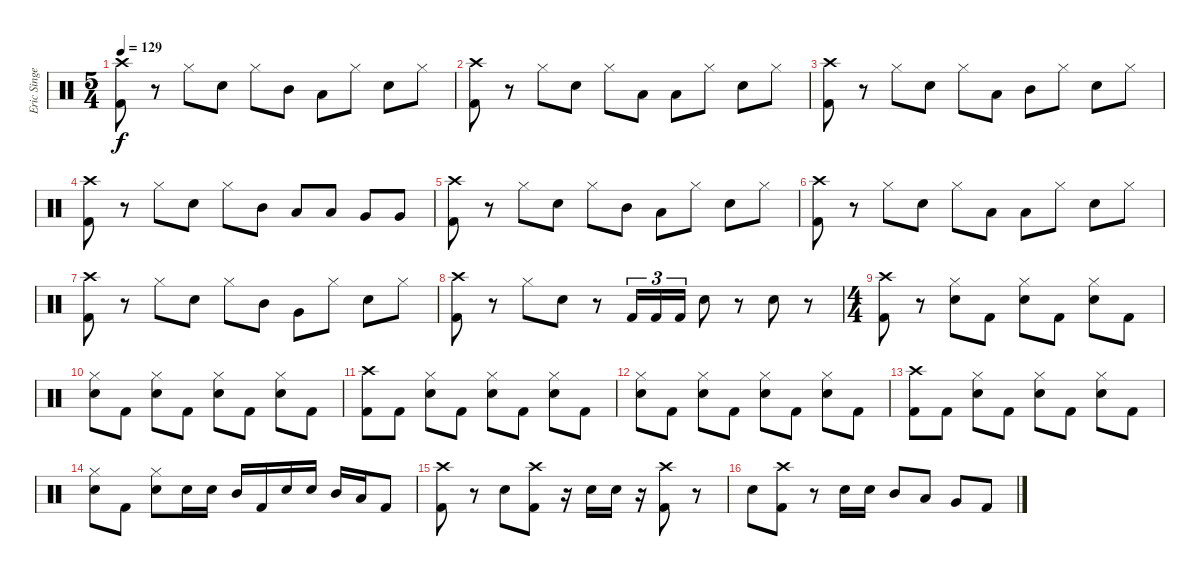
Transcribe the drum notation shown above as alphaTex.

\track ("Eric Singer" "Eric Singe") {instrument percussion}
\staff {score}
\articulation defaults
\ts (5 4)
\tempo 129
\clef neutral
\ks c
("Crash high (hit)" "Kick (hit) 2").8{dy f} r.8 "Hi-Hat (closed)".8 "Electric Snare (hit)".8 "Hi-Hat (closed)".8 "Mid Tom (hit)".8 "Low Tom (hit)".8 "Hi-Hat (closed)".8 "Electric Snare (hit)".8 "Hi-Hat (closed)".8 |
("Crash high (hit)" "Kick (hit) 2").8 r.8 "Hi-Hat (closed)".8 "Electric Snare (hit)".8 "Hi-Hat (closed)".8 "Low Tom (hit)".8 "Low Tom (hit)".8 "Hi-Hat (closed)".8 "Electric Snare (hit)".8 "Hi-Hat (closed)".8 |
("Crash high (hit)" "Kick (hit) 2").8 r.8 "Hi-Hat (closed)".8 "Electric Snare (hit)".8 "Hi-Hat (closed)".8 "Low Tom (hit)".8 "Mid Tom (hit)".8 "Hi-Hat (closed)".8 "Electric Snare (hit)".8 "Hi-Hat (closed)".8 |
("Crash high (hit)" "Kick (hit) 2").8 r.8 "Hi-Hat (closed)".8 "Electric Snare (hit)".8 "Hi-Hat (closed)".8 "Mid Tom (hit)".8 "Low Tom (hit)".8 "Low Tom (hit)".8 "Very Low Tom (hit)".8 "Very Low Tom (hit)".8 |
("Crash high (hit)" "Kick (hit) 2").8 r.8 "Hi-Hat (closed)".8 "Electric Snare (hit)".8 "Hi-Hat (closed)".8 "Mid Tom (hit)".8 "Low Tom (hit)".8 "Hi-Hat (closed)".8 "Electric Snare (hit)".8 "Hi-Hat (closed)".8 |
("Crash high (hit)" "Kick (hit) 2").8 r.8 "Hi-Hat (closed)".8 "Electric Snare (hit)".8 "Hi-Hat (closed)".8 "Low Tom (hit)".8 "Low Tom (hit)".8 "Hi-Hat (closed)".8 "Electric Snare (hit)".8 "Hi-Hat (closed)".8 |
("Crash high (hit)" "Kick (hit) 2").8 r.8 "Hi-Hat (closed)".8 "Electric Snare (hit)".8 "Hi-Hat (closed)".8 "Mid Tom (hit)".8 "Very Low Tom (hit)".8 "Hi-Hat (closed)".8 "Electric Snare (hit)".8 "Hi-Hat (closed)".8 |
("Crash high (hit)" "Kick (hit) 2").8 r.8 "Hi-Hat (closed)".8 "Electric Snare (hit)".8 r.8 "Kick (hit) 2".16{tu (3 2)} "Kick (hit) 2".16{tu (3 2)} "Kick (hit) 2".16{tu (3 2)} "Electric Snare (hit)".8 r.8 "Electric Snare (hit)".8 r.8 |
\ts (4 4)
("Crash high (hit)" "Kick (hit) 2").8 r.8 ("Hi-Hat (closed)" "Electric Snare (hit)").8 "Kick (hit) 2".8 ("Hi-Hat (closed)" "Electric Snare (hit)").8 "Kick (hit) 2".8 ("Hi-Hat (closed)" "Electric Snare (hit)").8 "Kick (hit) 2".8 |
("Hi-Hat (closed)" "Electric Snare (hit)").8 "Kick (hit) 2".8 ("Hi-Hat (closed)" "Electric Snare (hit)").8 "Kick (hit) 2".8 ("Hi-Hat (closed)" "Electric Snare (hit)").8 "Kick (hit) 2".8 ("Hi-Hat (closed)" "Electric Snare (hit)").8 "Kick (hit) 2".8 |
("Crash high (hit)" "Kick (hit) 2").8 "Kick (hit) 2".8 ("Hi-Hat (closed)" "Electric Snare (hit)").8 "Kick (hit) 2".8 ("Hi-Hat (closed)" "Electric Snare (hit)").8 "Kick (hit) 2".8 ("Hi-Hat (closed)" "Electric Snare (hit)").8 "Kick (hit) 2".8 |
("Hi-Hat (closed)" "Electric Snare (hit)").8 "Kick (hit) 2".8 ("Hi-Hat (closed)" "Electric Snare (hit)").8 "Kick (hit) 2".8 ("Hi-Hat (closed)" "Electric Snare (hit)").8 "Kick (hit) 2".8 ("Hi-Hat (closed)" "Electric Snare (hit)").8 "Kick (hit) 2".8 |
("Crash high (hit)" "Kick (hit) 2").8 "Kick (hit) 2".8 ("Hi-Hat (closed)" "Electric Snare (hit)").8 "Kick (hit) 2".8 ("Hi-Hat (closed)" "Electric Snare (hit)").8 "Kick (hit) 2".8 ("Hi-Hat (closed)" "Electric Snare (hit)").8 "Kick (hit) 2".8 |
("Hi-Hat (closed)" "Electric Snare (hit)").8 "Kick (hit) 2".8 ("Hi-Hat (closed)" "Electric Snare (hit)").8 "Electric Snare (hit)".16 "Electric Snare (hit)".16 "Mid Tom (hit)".16 "Kick (hit) 2".16 "Electric Snare (hit)".16 "Electric Snare (hit)".16 "Mid Tom (hit)".16 "Low Tom (hit)".16 "Kick (hit) 2".8 |
("Crash high (hit)" "Kick (hit) 2").8 r.8 "Electric Snare (hit)".8 ("Crash high (hit)" "Kick (hit) 2").8 r.16 "Electric Snare (hit)".16 "Electric Snare (hit)".16 r.16 ("Crash high (hit)" "Kick (hit) 2").8 r.8 |
"Electric Snare (hit)".8 ("Crash high (hit)" "Kick (hit) 2").8 r.8 "Electric Snare (hit)".16 "Electric Snare (hit)".16 "Mid Tom (hit)".8 "Low Tom (hit)".8 "Very Low Tom (hit)".8 "Kick (hit) 2".8
